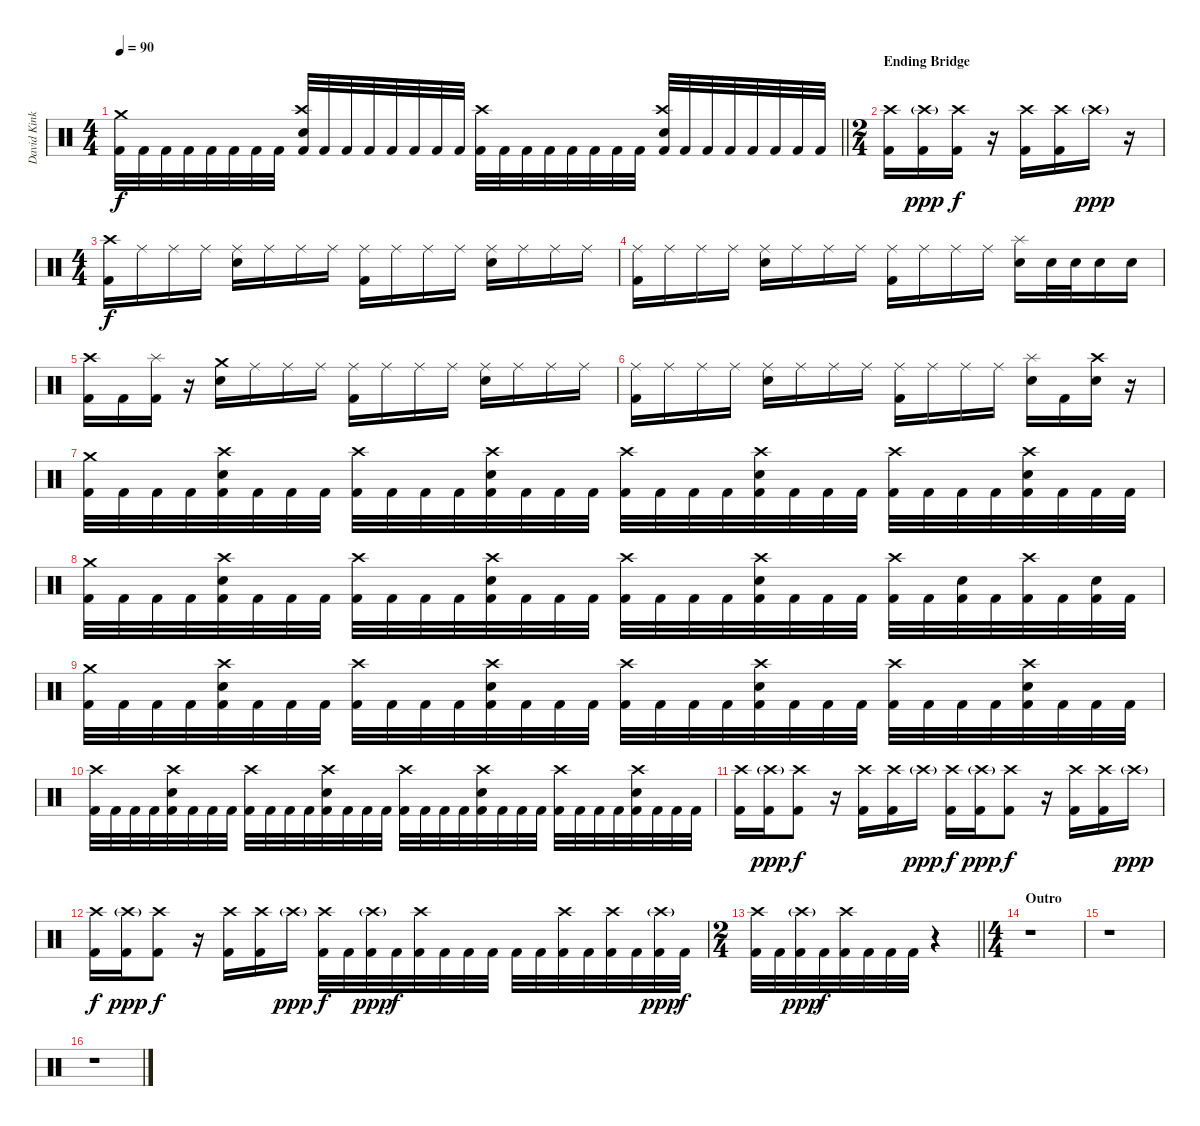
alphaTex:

\track ("David Kinkade" "David Kink") {instrument percussion}
\staff {score}
\articulation defaults
\ts (4 4)
\tempo 90
\clef neutral
\barLineRight lightlight
\ks c
("Crash medium (hit)" "Kick (hit) 2").32{dy f} "Kick (hit) 2".32 "Kick (hit) 2".32 "Kick (hit) 2".32 "Kick (hit) 2".32 "Kick (hit) 2".32 "Kick (hit) 2".32 "Kick (hit) 2".32 ("Crash high (hit)" "Snare (hit) 2" "Kick (hit) 2").32 "Kick (hit) 2".32 "Kick (hit) 2".32 "Kick (hit) 2".32 "Kick (hit) 2".32 "Kick (hit) 2".32 "Kick (hit) 2".32 "Kick (hit) 2".32 ("Crash high (hit)" "Kick (hit) 2").32 "Kick (hit) 2".32 "Kick (hit) 2".32 "Kick (hit) 2".32 "Kick (hit) 2".32 "Kick (hit) 2".32 "Kick (hit) 2".32 "Kick (hit) 2".32 ("Crash high (hit)" "Snare (hit) 2" "Kick (hit) 2").32 "Kick (hit) 2".32 "Kick (hit) 2".32 "Kick (hit) 2".32 "Kick (hit) 2".32 "Kick (hit) 2".32 "Kick (hit) 2".32 "Kick (hit) 2".32 |
\ts (2 4)
\section ("" "Ending Bridge")
("Crash high (hit)" "Kick (hit) 2").16 ("Crash high (hit)"{g} "Kick (hit) 2").16{dy ppp} ("Crash high (hit)" "Kick (hit) 2").16{dy f} r.16 ("Crash high (hit)" "Kick (hit) 2").16 ("Crash high (hit)" "Kick (hit) 2").16 "Crash high (hit)"{g}.16{dy ppp} r.16 |
\ts (4 4)
("Crash high (hit)" "Kick (hit) 2").16{dy f} "Ride (middle)".16 "Ride (middle)".16 "Ride (middle)".16 ("Ride (middle)" "Snare (hit) 2").16 "Ride (middle)".16 "Ride (middle)".16 "Ride (middle)".16 ("Ride (middle)" "Kick (hit) 2").16 "Ride (middle)".16 "Ride (middle)".16 "Ride (middle)".16 ("Ride (middle)" "Snare (hit) 2").16 "Ride (middle)".16 "Ride (middle)".16 "Ride (middle)".16 |
("Ride (middle)" "Kick (hit) 2").16 "Ride (middle)".16 "Ride (middle)".16 "Ride (middle)".16 ("Ride (middle)" "Snare (hit) 2").16 "Ride (middle)".16 "Ride (middle)".16 "Ride (middle)".16 ("Ride (middle)" "Kick (hit) 2").16 "Ride (middle)".16 "Ride (middle)".16 "Ride (middle)".16 ("Splash (hit)" "Snare (hit) 2").16 "Snare (hit) 2".32 "Snare (hit) 2".32 "Snare (hit) 2".16 "Snare (hit) 2".16 |
("Crash high (hit)" "Kick (hit) 2").16 "Kick (hit) 2".16 ("Splash (hit)" "Kick (hit) 2").16 r.16 ("Crash medium (hit)" "Snare (hit) 2").16 "Ride (middle)".16 "Ride (middle)".16 "Ride (middle)".16 ("Ride (middle)" "Kick (hit) 2").16 "Ride (middle)".16 "Ride (middle)".16 "Ride (middle)".16 ("Ride (middle)" "Snare (hit) 2").16 "Ride (middle)".16 "Ride (middle)".16 "Ride (middle)".16 |
("Ride (middle)" "Kick (hit) 2").16 "Ride (middle)".16 "Ride (middle)".16 "Ride (middle)".16 ("Ride (middle)" "Snare (hit) 2").16 "Ride (middle)".16 "Ride (middle)".16 "Ride (middle)".16 ("Ride (middle)" "Kick (hit) 2").16 "Ride (middle)".16 "Ride (middle)".16 "Ride (middle)".16 ("Splash (hit)" "Snare (hit) 2").16 "Kick (hit) 2".16 ("Crash high (hit)" "Snare (hit) 2").16 r.16 |
("Crash medium (hit)" "Kick (hit) 2").32 "Kick (hit) 2".32 "Kick (hit) 2".32 "Kick (hit) 2".32 ("Crash high (hit)" "Snare (hit) 2" "Kick (hit) 2").32 "Kick (hit) 2".32 "Kick (hit) 2".32 "Kick (hit) 2".32 ("Crash high (hit)" "Kick (hit) 2").32 "Kick (hit) 2".32 "Kick (hit) 2".32 "Kick (hit) 2".32 ("Crash high (hit)" "Snare (hit) 2" "Kick (hit) 2").32 "Kick (hit) 2".32 "Kick (hit) 2".32 "Kick (hit) 2".32 ("Crash high (hit)" "Kick (hit) 2").32 "Kick (hit) 2".32 "Kick (hit) 2".32 "Kick (hit) 2".32 ("Crash high (hit)" "Snare (hit) 2" "Kick (hit) 2").32 "Kick (hit) 2".32 "Kick (hit) 2".32 "Kick (hit) 2".32 ("Crash high (hit)" "Kick (hit) 2").32 "Kick (hit) 2".32 "Kick (hit) 2".32 "Kick (hit) 2".32 ("Crash high (hit)" "Snare (hit) 2" "Kick (hit) 2").32 "Kick (hit) 2".32 "Kick (hit) 2".32 "Kick (hit) 2".32 |
("Crash medium (hit)" "Kick (hit) 2").32 "Kick (hit) 2".32 "Kick (hit) 2".32 "Kick (hit) 2".32 ("Crash high (hit)" "Snare (hit) 2" "Kick (hit) 2").32 "Kick (hit) 2".32 "Kick (hit) 2".32 "Kick (hit) 2".32 ("Crash high (hit)" "Kick (hit) 2").32 "Kick (hit) 2".32 "Kick (hit) 2".32 "Kick (hit) 2".32 ("Crash high (hit)" "Snare (hit) 2" "Kick (hit) 2").32 "Kick (hit) 2".32 "Kick (hit) 2".32 "Kick (hit) 2".32 ("Crash high (hit)" "Kick (hit) 2").32 "Kick (hit) 2".32 "Kick (hit) 2".32 "Kick (hit) 2".32 ("Crash high (hit)" "Snare (hit) 2" "Kick (hit) 2").32 "Kick (hit) 2".32 "Kick (hit) 2".32 "Kick (hit) 2".32 ("Crash high (hit)" "Kick (hit) 2").32 "Kick (hit) 2".32 ("Snare (hit) 2" "Kick (hit) 2").32 "Kick (hit) 2".32 ("Crash high (hit)" "Kick (hit) 2").32 "Kick (hit) 2".32 ("Snare (hit) 2" "Kick (hit) 2").32 "Kick (hit) 2".32 |
("Crash medium (hit)" "Kick (hit) 2").32 "Kick (hit) 2".32 "Kick (hit) 2".32 "Kick (hit) 2".32 ("Crash high (hit)" "Snare (hit) 2" "Kick (hit) 2").32 "Kick (hit) 2".32 "Kick (hit) 2".32 "Kick (hit) 2".32 ("Crash high (hit)" "Kick (hit) 2").32 "Kick (hit) 2".32 "Kick (hit) 2".32 "Kick (hit) 2".32 ("Crash high (hit)" "Snare (hit) 2" "Kick (hit) 2").32 "Kick (hit) 2".32 "Kick (hit) 2".32 "Kick (hit) 2".32 ("Crash high (hit)" "Kick (hit) 2").32 "Kick (hit) 2".32 "Kick (hit) 2".32 "Kick (hit) 2".32 ("Crash high (hit)" "Snare (hit) 2" "Kick (hit) 2").32 "Kick (hit) 2".32 "Kick (hit) 2".32 "Kick (hit) 2".32 ("Crash high (hit)" "Kick (hit) 2").32 "Kick (hit) 2".32 "Kick (hit) 2".32 "Kick (hit) 2".32 ("Crash high (hit)" "Snare (hit) 2" "Kick (hit) 2").32 "Kick (hit) 2".32 "Kick (hit) 2".32 "Kick (hit) 2".32 |
("Crash high (hit)" "Kick (hit) 2").32 "Kick (hit) 2".32 "Kick (hit) 2".32 "Kick (hit) 2".32 ("Crash high (hit)" "Snare (hit) 2" "Kick (hit) 2").32 "Kick (hit) 2".32 "Kick (hit) 2".32 "Kick (hit) 2".32 ("Crash high (hit)" "Kick (hit) 2").32 "Kick (hit) 2".32 "Kick (hit) 2".32 "Kick (hit) 2".32 ("Crash high (hit)" "Snare (hit) 2" "Kick (hit) 2").32 "Kick (hit) 2".32 "Kick (hit) 2".32 "Kick (hit) 2".32 ("Crash high (hit)" "Kick (hit) 2").32 "Kick (hit) 2".32 "Kick (hit) 2".32 "Kick (hit) 2".32 ("Crash high (hit)" "Snare (hit) 2" "Kick (hit) 2").32 "Kick (hit) 2".32 "Kick (hit) 2".32 "Kick (hit) 2".32 ("Crash high (hit)" "Kick (hit) 2").32 "Kick (hit) 2".32 "Kick (hit) 2".32 "Kick (hit) 2".32 ("Crash high (hit)" "Snare (hit) 2" "Kick (hit) 2").32 "Kick (hit) 2".32 "Kick (hit) 2".32 "Kick (hit) 2".32 |
("Crash high (hit)" "Kick (hit) 2").16 ("Crash high (hit)"{g} "Kick (hit) 2").16{dy ppp} ("Crash high (hit)" "Kick (hit) 2").8{dy f} r.16 ("Crash high (hit)" "Kick (hit) 2").16 ("Crash high (hit)" "Kick (hit) 2").16 "Crash high (hit)"{g}.16{dy ppp} ("Crash high (hit)" "Kick (hit) 2").16{dy f} ("Crash high (hit)"{g} "Kick (hit) 2").16{dy ppp} ("Crash high (hit)" "Kick (hit) 2").8{dy f} r.16 ("Crash high (hit)" "Kick (hit) 2").16 ("Crash high (hit)" "Kick (hit) 2").16 "Crash high (hit)"{g}.16{dy ppp} |
("Crash high (hit)" "Kick (hit) 2").16{dy f} ("Crash high (hit)"{g} "Kick (hit) 2").16{dy ppp} ("Crash high (hit)" "Kick (hit) 2").8{dy f} r.16 ("Crash high (hit)" "Kick (hit) 2").16 ("Crash high (hit)" "Kick (hit) 2").16 "Crash high (hit)"{g}.16{dy ppp} ("Crash high (hit)" "Kick (hit) 2").32{dy f} "Kick (hit) 2".32 ("Crash high (hit)"{g} "Kick (hit) 2").32{dy ppp} "Kick (hit) 2".32{dy f} ("Crash high (hit)" "Kick (hit) 2").32 "Kick (hit) 2".32 "Kick (hit) 2".32 "Kick (hit) 2".32 "Kick (hit) 2".32 "Kick (hit) 2".32 ("Crash high (hit)" "Kick (hit) 2").32 "Kick (hit) 2".32 ("Crash high (hit)" "Kick (hit) 2").32 "Kick (hit) 2".32 ("Crash high (hit)"{g} "Kick (hit) 2").32{dy ppp} "Kick (hit) 2".32{dy f} |
\ts (2 4)
\barLineRight lightlight
("Crash high (hit)" "Kick (hit) 2").32 "Kick (hit) 2".32 ("Crash high (hit)"{g} "Kick (hit) 2").32{dy ppp} "Kick (hit) 2".32{dy f} ("Crash high (hit)" "Kick (hit) 2").32 "Kick (hit) 2".32 "Kick (hit) 2".32 "Kick (hit) 2".32 r.4 |
\ts (4 4)
\section ("" "Outro")
r.1 |
r.1 |
r.1
